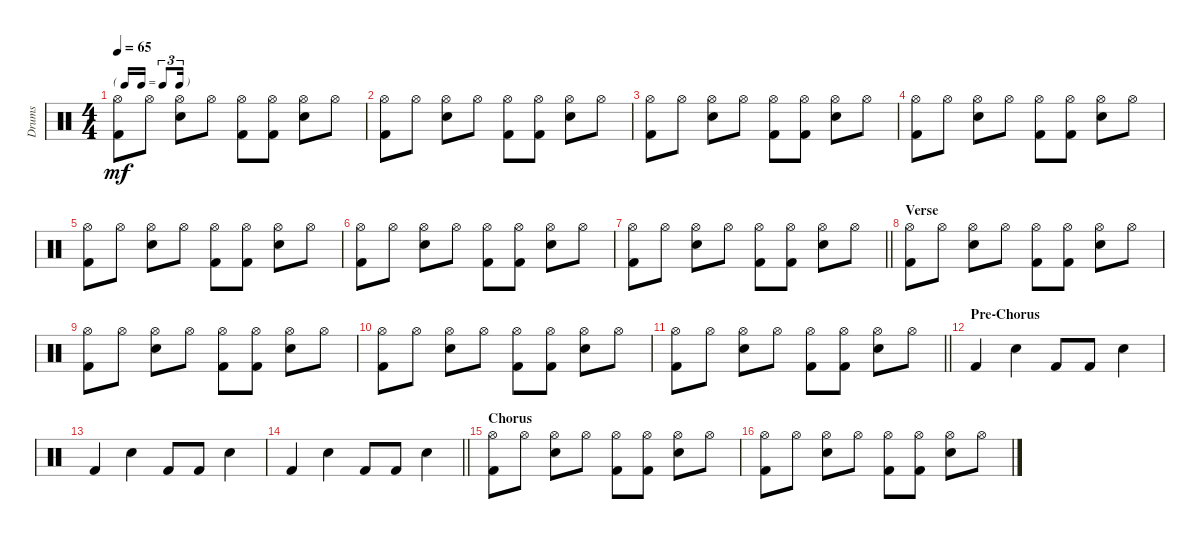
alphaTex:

\track ("Drums" "Drums") {instrument percussion}
\staff {score}
\articulation defaults
\ts (4 4)
\tf triplet16th
\tempo 65
\clef neutral
\ks aminor
("Hi-Hat (open)" "Kick (hit) 2").8{dy mf} "Hi-Hat (open)".8 ("Hi-Hat (open)" "Snare (hit) 2").8 "Hi-Hat (open)".8 ("Hi-Hat (open)" "Kick (hit) 2").8 ("Hi-Hat (open)" "Kick (hit) 2").8 ("Hi-Hat (open)" "Snare (hit) 2").8 "Hi-Hat (open)".8 |
("Hi-Hat (open)" "Kick (hit) 2").8 "Hi-Hat (open)".8 ("Hi-Hat (open)" "Snare (hit) 2").8 "Hi-Hat (open)".8 ("Hi-Hat (open)" "Kick (hit) 2").8 ("Hi-Hat (open)" "Kick (hit) 2").8 ("Hi-Hat (open)" "Snare (hit) 2").8 "Hi-Hat (open)".8 |
("Hi-Hat (open)" "Kick (hit) 2").8 "Hi-Hat (open)".8 ("Hi-Hat (open)" "Snare (hit) 2").8 "Hi-Hat (open)".8 ("Hi-Hat (open)" "Kick (hit) 2").8 ("Hi-Hat (open)" "Kick (hit) 2").8 ("Hi-Hat (open)" "Snare (hit) 2").8 "Hi-Hat (open)".8 |
("Hi-Hat (open)" "Kick (hit) 2").8 "Hi-Hat (open)".8 ("Hi-Hat (open)" "Snare (hit) 2").8 "Hi-Hat (open)".8 ("Hi-Hat (open)" "Kick (hit) 2").8 ("Hi-Hat (open)" "Kick (hit) 2").8 ("Hi-Hat (open)" "Snare (hit) 2").8 "Hi-Hat (open)".8 |
("Hi-Hat (open)" "Kick (hit) 2").8 "Hi-Hat (open)".8 ("Hi-Hat (open)" "Snare (hit) 2").8 "Hi-Hat (open)".8 ("Hi-Hat (open)" "Kick (hit) 2").8 ("Hi-Hat (open)" "Kick (hit) 2").8 ("Hi-Hat (open)" "Snare (hit) 2").8 "Hi-Hat (open)".8 |
("Hi-Hat (open)" "Kick (hit) 2").8 "Hi-Hat (open)".8 ("Hi-Hat (open)" "Snare (hit) 2").8 "Hi-Hat (open)".8 ("Hi-Hat (open)" "Kick (hit) 2").8 ("Hi-Hat (open)" "Kick (hit) 2").8 ("Hi-Hat (open)" "Snare (hit) 2").8 "Hi-Hat (open)".8 |
\barLineRight lightlight
("Hi-Hat (open)" "Kick (hit) 2").8 "Hi-Hat (open)".8 ("Hi-Hat (open)" "Snare (hit) 2").8 "Hi-Hat (open)".8 ("Hi-Hat (open)" "Kick (hit) 2").8 ("Hi-Hat (open)" "Kick (hit) 2").8 ("Hi-Hat (open)" "Snare (hit) 2").8 "Hi-Hat (open)".8 |
\section ("" "Verse")
("Hi-Hat (open)" "Kick (hit) 2").8 "Hi-Hat (open)".8 ("Hi-Hat (open)" "Snare (hit) 2").8 "Hi-Hat (open)".8 ("Hi-Hat (open)" "Kick (hit) 2").8 ("Hi-Hat (open)" "Kick (hit) 2").8 ("Hi-Hat (open)" "Snare (hit) 2").8 "Hi-Hat (open)".8 |
("Hi-Hat (open)" "Kick (hit) 2").8 "Hi-Hat (open)".8 ("Hi-Hat (open)" "Snare (hit) 2").8 "Hi-Hat (open)".8 ("Hi-Hat (open)" "Kick (hit) 2").8 ("Hi-Hat (open)" "Kick (hit) 2").8 ("Hi-Hat (open)" "Snare (hit) 2").8 "Hi-Hat (open)".8 |
("Hi-Hat (open)" "Kick (hit) 2").8 "Hi-Hat (open)".8 ("Hi-Hat (open)" "Snare (hit) 2").8 "Hi-Hat (open)".8 ("Hi-Hat (open)" "Kick (hit) 2").8 ("Hi-Hat (open)" "Kick (hit) 2").8 ("Hi-Hat (open)" "Snare (hit) 2").8 "Hi-Hat (open)".8 |
\barLineRight lightlight
("Hi-Hat (open)" "Kick (hit) 2").8 "Hi-Hat (open)".8 ("Hi-Hat (open)" "Snare (hit) 2").8 "Hi-Hat (open)".8 ("Hi-Hat (open)" "Kick (hit) 2").8 ("Hi-Hat (open)" "Kick (hit) 2").8 ("Hi-Hat (open)" "Snare (hit) 2").8 "Hi-Hat (open)".8 |
\section ("" "Pre-Chorus")
"Kick (hit) 2".4 "Snare (hit) 2".4 "Kick (hit) 2".8 "Kick (hit) 2".8 "Snare (hit) 2".4 |
"Kick (hit) 2".4 "Snare (hit) 2".4 "Kick (hit) 2".8 "Kick (hit) 2".8 "Snare (hit) 2".4 |
\barLineRight lightlight "Kick (hit) 2".4 "Snare (hit) 2".4 "Kick (hit) 2".8 "Kick (hit) 2".8 "Snare (hit) 2".4
|
\section ("" "Chorus")
("Hi-Hat (open)" "Kick (hit) 2").8 "Hi-Hat (open)".8 ("Hi-Hat (open)" "Snare (hit) 2").8 "Hi-Hat (open)".8 ("Hi-Hat (open)" "Kick (hit) 2").8 ("Hi-Hat (open)" "Kick (hit) 2").8 ("Hi-Hat (open)" "Snare (hit) 2").8 "Hi-Hat (open)".8 |
("Hi-Hat (open)" "Kick (hit) 2").8 "Hi-Hat (open)".8 ("Hi-Hat (open)" "Snare (hit) 2").8 "Hi-Hat (open)".8 ("Hi-Hat (open)" "Kick (hit) 2").8 ("Hi-Hat (open)" "Kick (hit) 2").8 ("Hi-Hat (open)" "Snare (hit) 2").8 "Hi-Hat (open)".8
